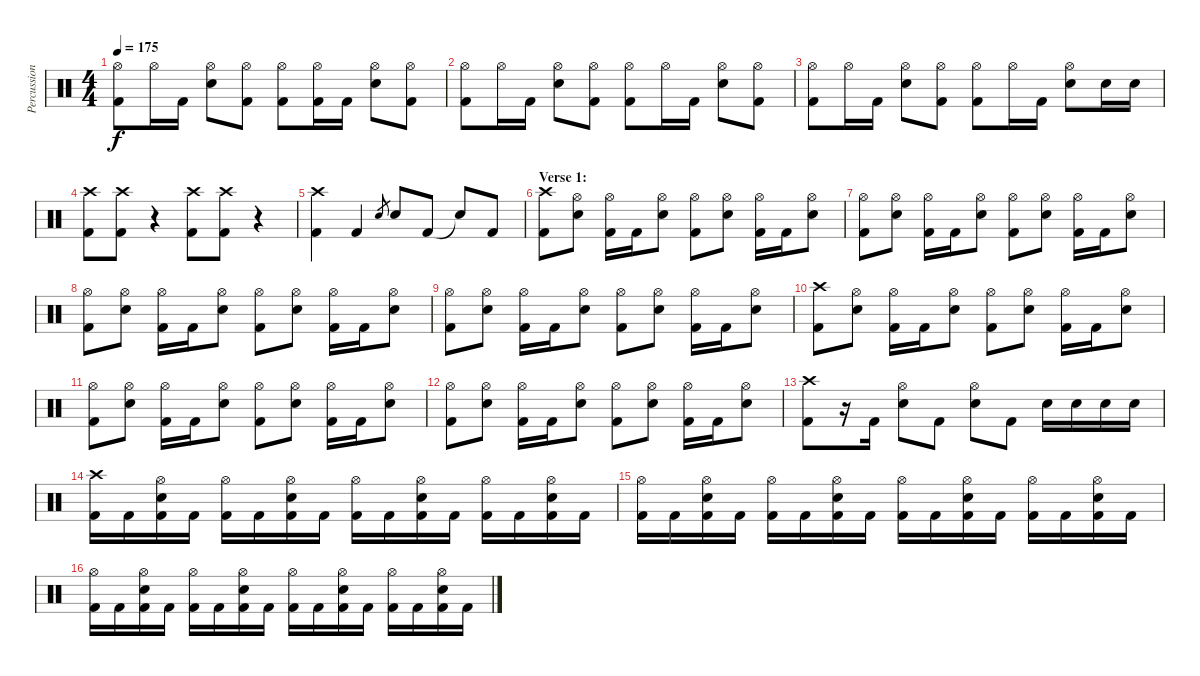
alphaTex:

\track ("Percussion" "Percussion") {instrument percussion}
\staff {score}
\articulation defaults
\ts (4 4)
\tempo 175
\clef neutral
\ks c
("Hi-Hat (open)" "Kick (hit) 2").8{dy f} "Hi-Hat (open)".16 "Kick (hit) 2".16 ("Hi-Hat (open)" "Electric Snare (hit)").8 ("Hi-Hat (open)" "Kick (hit) 2").8 ("Hi-Hat (open)" "Kick (hit) 2").8 ("Hi-Hat (open)" "Kick (hit) 2").16 "Kick (hit) 2".16 ("Hi-Hat (open)" "Electric Snare (hit)").8 ("Hi-Hat (open)" "Kick (hit) 2").8 |
("Hi-Hat (open)" "Kick (hit) 2").8 "Hi-Hat (open)".16 "Kick (hit) 2".16 ("Hi-Hat (open)" "Electric Snare (hit)").8 ("Hi-Hat (open)" "Kick (hit) 2").8 ("Hi-Hat (open)" "Kick (hit) 2").8 "Hi-Hat (open)".16 "Kick (hit) 2".16 ("Hi-Hat (open)" "Electric Snare (hit)").8 ("Hi-Hat (open)" "Kick (hit) 2").8 |
("Hi-Hat (open)" "Kick (hit) 2").8 "Hi-Hat (open)".16 "Kick (hit) 2".16 ("Hi-Hat (open)" "Electric Snare (hit)").8 ("Hi-Hat (open)" "Kick (hit) 2").8 ("Hi-Hat (open)" "Kick (hit) 2").8 "Hi-Hat (open)".16 "Kick (hit) 2".16 ("Hi-Hat (open)" "Electric Snare (hit)").8 "Electric Snare (hit)".16 "Electric Snare (hit)".16 |
("Crash high (hit)" "Kick (hit) 2").8 ("Crash high (hit)" "Kick (hit) 2").8 r.4 ("Crash high (hit)" "Kick (hit) 2").8 ("Crash high (hit)" "Kick (hit) 2").8 r.4 |
("Crash high (hit)" "Kick (hit) 2").4 "Kick (hit) 2".4 "Electric Snare (hit)".8{gr} "Electric Snare (hit)".8 "Kick (hit) 2".8 "Snare (hit)"{t}.8 "Kick (hit) 2".8 |
\section ("" "Verse 1:")
("Crash high (hit)" "Kick (hit) 2").8 ("Hi-Hat (open)" "Electric Snare (hit)").8 ("Hi-Hat (open)" "Kick (hit) 2").16 "Kick (hit) 2".16 ("Hi-Hat (open)" "Electric Snare (hit)").8 ("Hi-Hat (open)" "Kick (hit) 2").8 ("Hi-Hat (open)" "Electric Snare (hit)").8 ("Hi-Hat (open)" "Kick (hit) 2").16 "Kick (hit) 2".16 ("Hi-Hat (open)" "Electric Snare (hit)").8 |
("Hi-Hat (open)" "Kick (hit) 2").8 ("Hi-Hat (open)" "Electric Snare (hit)").8 ("Hi-Hat (open)" "Kick (hit) 2").16 "Kick (hit) 2".16 ("Hi-Hat (open)" "Electric Snare (hit)").8 ("Hi-Hat (open)" "Kick (hit) 2").8 ("Hi-Hat (open)" "Electric Snare (hit)").8 ("Hi-Hat (open)" "Kick (hit) 2").16 "Kick (hit) 2".16 ("Hi-Hat (open)" "Electric Snare (hit)").8 |
("Hi-Hat (open)" "Kick (hit) 2").8 ("Hi-Hat (open)" "Electric Snare (hit)").8 ("Hi-Hat (open)" "Kick (hit) 2").16 "Kick (hit) 2".16 ("Hi-Hat (open)" "Electric Snare (hit)").8 ("Hi-Hat (open)" "Kick (hit) 2").8 ("Hi-Hat (open)" "Electric Snare (hit)").8 ("Hi-Hat (open)" "Kick (hit) 2").16 "Kick (hit) 2".16 ("Hi-Hat (open)" "Electric Snare (hit)").8 |
("Hi-Hat (open)" "Kick (hit) 2").8 ("Hi-Hat (open)" "Electric Snare (hit)").8 ("Hi-Hat (open)" "Kick (hit) 2").16 "Kick (hit) 2".16 ("Hi-Hat (open)" "Electric Snare (hit)").8 ("Hi-Hat (open)" "Kick (hit) 2").8 ("Hi-Hat (open)" "Electric Snare (hit)").8 ("Hi-Hat (open)" "Kick (hit) 2").16 "Kick (hit) 2".16 ("Hi-Hat (open)" "Electric Snare (hit)").8 |
("Crash high (hit)" "Kick (hit) 2").8 ("Hi-Hat (open)" "Electric Snare (hit)").8 ("Hi-Hat (open)" "Kick (hit) 2").16 "Kick (hit) 2".16 ("Hi-Hat (open)" "Electric Snare (hit)").8 ("Hi-Hat (open)" "Kick (hit) 2").8 ("Hi-Hat (open)" "Electric Snare (hit)").8 ("Hi-Hat (open)" "Kick (hit) 2").16 "Kick (hit) 2".16 ("Hi-Hat (open)" "Electric Snare (hit)").8 |
("Hi-Hat (open)" "Kick (hit) 2").8 ("Hi-Hat (open)" "Electric Snare (hit)").8 ("Hi-Hat (open)" "Kick (hit) 2").16 "Kick (hit) 2".16 ("Hi-Hat (open)" "Electric Snare (hit)").8 ("Hi-Hat (open)" "Kick (hit) 2").8 ("Hi-Hat (open)" "Electric Snare (hit)").8 ("Hi-Hat (open)" "Kick (hit) 2").16 "Kick (hit) 2".16 ("Hi-Hat (open)" "Electric Snare (hit)").8 |
("Hi-Hat (open)" "Kick (hit) 2").8 ("Hi-Hat (open)" "Electric Snare (hit)").8 ("Hi-Hat (open)" "Kick (hit) 2").16 "Kick (hit) 2".16 ("Hi-Hat (open)" "Electric Snare (hit)").8 ("Hi-Hat (open)" "Kick (hit) 2").8 ("Hi-Hat (open)" "Electric Snare (hit)").8 ("Hi-Hat (open)" "Kick (hit) 2").16 "Kick (hit) 2".16 ("Hi-Hat (open)" "Electric Snare (hit)").8 |
("Crash high (hit)" "Kick (hit) 2").8 r.16 "Kick (hit) 2".16 ("Hi-Hat (open)" "Electric Snare (hit)").8 "Kick (hit) 2".8 ("Hi-Hat (open)" "Electric Snare (hit)").8 "Kick (hit) 2".8 "Electric Snare (hit)".16 "Electric Snare (hit)".16 "Electric Snare (hit)".16 "Electric Snare (hit)".16 |
("Crash high (hit)" "Kick (hit) 2").16 "Kick (hit) 2".16 ("Hi-Hat (open)" "Electric Snare (hit)" "Kick (hit) 2").16 "Kick (hit) 2".16 ("Hi-Hat (open)" "Kick (hit) 2").16 "Kick (hit) 2".16 ("Hi-Hat (open)" "Electric Snare (hit)" "Kick (hit) 2").16 "Kick (hit) 2".16 ("Hi-Hat (open)" "Kick (hit) 2").16 "Kick (hit) 2".16 ("Hi-Hat (open)" "Electric Snare (hit)" "Kick (hit) 2").16 "Kick (hit) 2".16 ("Hi-Hat (open)" "Kick (hit) 2").16 "Kick (hit) 2".16 ("Hi-Hat (open)" "Electric Snare (hit)" "Kick (hit) 2").16 "Kick (hit) 2".16 |
("Hi-Hat (open)" "Kick (hit) 2").16 "Kick (hit) 2".16 ("Hi-Hat (open)" "Electric Snare (hit)" "Kick (hit) 2").16 "Kick (hit) 2".16 ("Hi-Hat (open)" "Kick (hit) 2").16 "Kick (hit) 2".16 ("Hi-Hat (open)" "Electric Snare (hit)" "Kick (hit) 2").16 "Kick (hit) 2".16 ("Hi-Hat (open)" "Kick (hit) 2").16 "Kick (hit) 2".16 ("Hi-Hat (open)" "Electric Snare (hit)" "Kick (hit) 2").16 "Kick (hit) 2".16 ("Hi-Hat (open)" "Kick (hit) 2").16 "Kick (hit) 2".16 ("Hi-Hat (open)" "Electric Snare (hit)" "Kick (hit) 2").16 "Kick (hit) 2".16 |
("Hi-Hat (open)" "Kick (hit) 2").16 "Kick (hit) 2".16 ("Hi-Hat (open)" "Electric Snare (hit)" "Kick (hit) 2").16 "Kick (hit) 2".16 ("Hi-Hat (open)" "Kick (hit) 2").16 "Kick (hit) 2".16 ("Hi-Hat (open)" "Electric Snare (hit)" "Kick (hit) 2").16 "Kick (hit) 2".16 ("Hi-Hat (open)" "Kick (hit) 2").16 "Kick (hit) 2".16 ("Hi-Hat (open)" "Electric Snare (hit)" "Kick (hit) 2").16 "Kick (hit) 2".16 ("Hi-Hat (open)" "Kick (hit) 2").16 "Kick (hit) 2".16 ("Hi-Hat (open)" "Electric Snare (hit)" "Kick (hit) 2").16 "Kick (hit) 2".16
